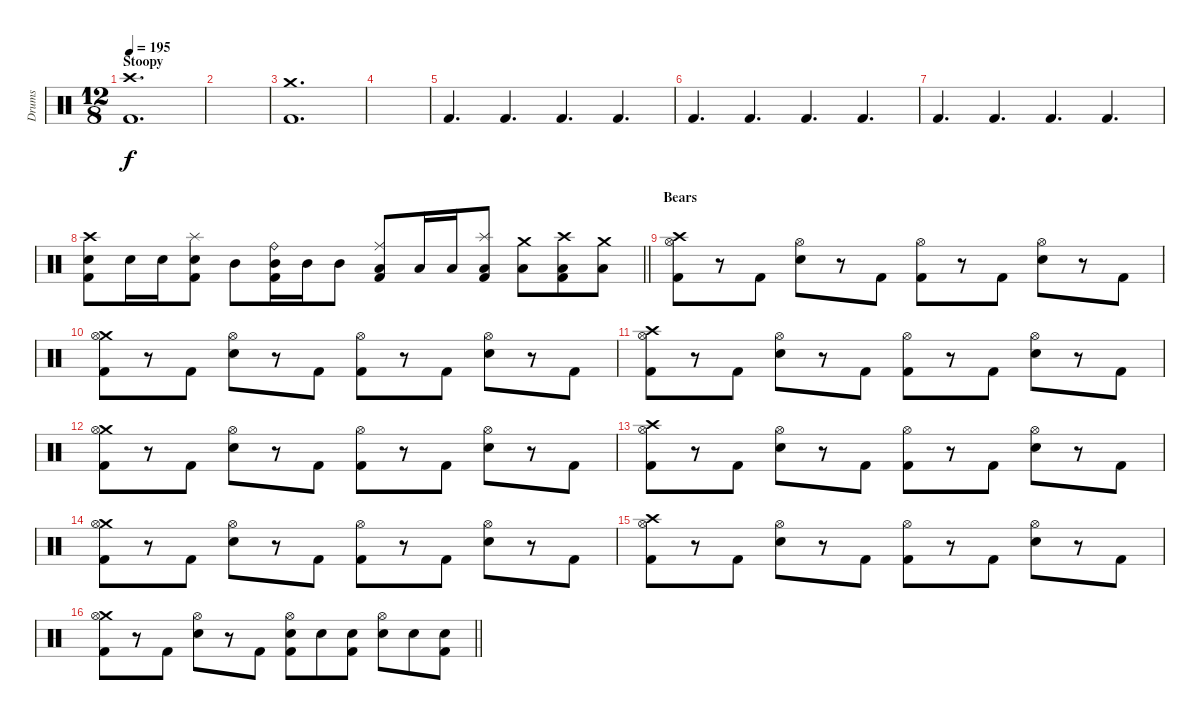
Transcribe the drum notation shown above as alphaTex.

\track ("Drums" "Drums") {instrument percussion}
\staff {score}
\articulation defaults
\ts (12 8)
\section ("" "Stoopy")
\tempo 195
\clef neutral
\ks c
("Crash high (hit)" "Kick (hit) 2").1{d dy f} |
|
("Crash medium (hit)" "Kick (hit) 2").1{d} |
|
"Kick (hit) 2".4{d} "Kick (hit) 2".4{d} "Kick (hit) 2".4{d} "Kick (hit) 2".4{d} |
"Kick (hit) 2".4{d} "Kick (hit) 2".4{d} "Kick (hit) 2".4{d} "Kick (hit) 2".4{d} |
"Kick (hit) 2".4{d} "Kick (hit) 2".4{d} "Kick (hit) 2".4{d} "Kick (hit) 2".4{d} |
\barLineRight lightlight
("Crash high (hit)" "Snare (hit) 2" "Kick (hit) 2").8 "Snare (hit) 2".16 "Snare (hit) 2".16 ("Splash (hit)" "Snare (hit) 2" "Kick (hit) 2").8 "Mid Tom (hit)".8 ("Ride (bell)" "Mid Tom (hit)" "Kick (hit) 2").16 "Mid Tom (hit)".16 "Mid Tom (hit)".8 ("Ride (middle)" "Low Tom (hit)" "Kick (hit) 2").8 "Low Tom (hit)".16 "Low Tom (hit)".16 ("Splash (hit)" "Low Tom (hit)" "Kick (hit) 2").8 ("Crash medium (hit)" "Low Floor Tom (hit)").8 ("Crash high (hit)" "Low Floor Tom (hit)" "Kick (hit) 2").8 ("Crash medium (hit)" "Low Floor Tom (hit)").8 |
\section ("" "Bears")
("Crash high (hit)" "Hi-Hat (open)" "Kick (hit) 2").8 r.8 "Kick (hit) 2".8 ("Hi-Hat (open)" "Snare (hit) 2").8 r.8 "Kick (hit) 2".8 ("Hi-Hat (open)" "Kick (hit) 2").8 r.8 "Kick (hit) 2".8 ("Hi-Hat (open)" "Snare (hit) 2").8 r.8 "Kick (hit) 2".8 |
("Crash medium (hit)" "Hi-Hat (open)" "Kick (hit) 2").8 r.8 "Kick (hit) 2".8 ("Hi-Hat (open)" "Snare (hit) 2").8 r.8 "Kick (hit) 2".8 ("Hi-Hat (open)" "Kick (hit) 2").8 r.8 "Kick (hit) 2".8 ("Hi-Hat (open)" "Snare (hit) 2").8 r.8 "Kick (hit) 2".8 |
("Crash high (hit)" "Hi-Hat (open)" "Kick (hit) 2").8 r.8 "Kick (hit) 2".8 ("Hi-Hat (open)" "Snare (hit) 2").8 r.8 "Kick (hit) 2".8 ("Hi-Hat (open)" "Kick (hit) 2").8 r.8 "Kick (hit) 2".8 ("Hi-Hat (open)" "Snare (hit) 2").8 r.8 "Kick (hit) 2".8 |
("Crash medium (hit)" "Hi-Hat (open)" "Kick (hit) 2").8 r.8 "Kick (hit) 2".8 ("Hi-Hat (open)" "Snare (hit) 2").8 r.8 "Kick (hit) 2".8 ("Hi-Hat (open)" "Kick (hit) 2").8 r.8 "Kick (hit) 2".8 ("Hi-Hat (open)" "Snare (hit) 2").8 r.8 "Kick (hit) 2".8 |
("Crash high (hit)" "Hi-Hat (open)" "Kick (hit) 2").8 r.8 "Kick (hit) 2".8 ("Hi-Hat (open)" "Snare (hit) 2").8 r.8 "Kick (hit) 2".8 ("Hi-Hat (open)" "Kick (hit) 2").8 r.8 "Kick (hit) 2".8 ("Hi-Hat (open)" "Snare (hit) 2").8 r.8 "Kick (hit) 2".8 |
("Crash medium (hit)" "Hi-Hat (open)" "Kick (hit) 2").8 r.8 "Kick (hit) 2".8 ("Hi-Hat (open)" "Snare (hit) 2").8 r.8 "Kick (hit) 2".8 ("Hi-Hat (open)" "Kick (hit) 2").8 r.8 "Kick (hit) 2".8 ("Hi-Hat (open)" "Snare (hit) 2").8 r.8 "Kick (hit) 2".8 |
("Crash high (hit)" "Hi-Hat (open)" "Kick (hit) 2").8 r.8 "Kick (hit) 2".8 ("Hi-Hat (open)" "Snare (hit) 2").8 r.8 "Kick (hit) 2".8 ("Hi-Hat (open)" "Kick (hit) 2").8 r.8 "Kick (hit) 2".8 ("Hi-Hat (open)" "Snare (hit) 2").8 r.8 "Kick (hit) 2".8 |
\barLineRight lightlight
("Crash medium (hit)" "Hi-Hat (open)" "Kick (hit) 2").8 r.8 "Kick (hit) 2".8 ("Hi-Hat (open)" "Snare (hit) 2").8 r.8 "Kick (hit) 2".8 ("Hi-Hat (open)" "Snare (hit) 2" "Kick (hit) 2").8 "Snare (hit) 2".8 ("Snare (hit) 2" "Kick (hit) 2").8 ("Hi-Hat (open)" "Snare (hit) 2").8 "Snare (hit) 2".8 ("Snare (hit) 2" "Kick (hit) 2").8
